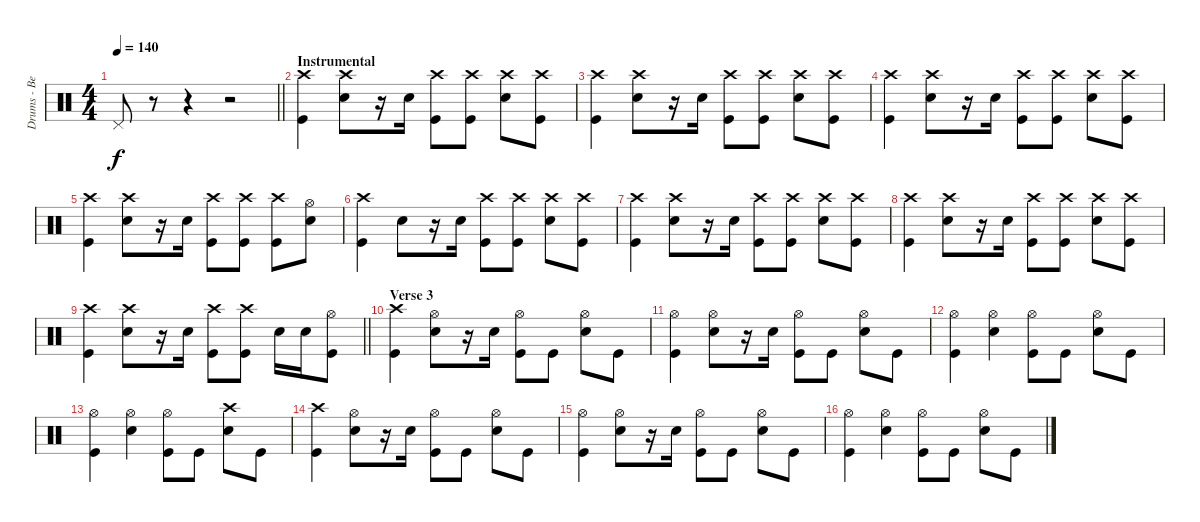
\track ("Drums - Ben Johnston" "Drums - Be") {instrument percussion}
\staff {score}
\articulation defaults
\ts (4 4)
\tempo 140
\clef neutral
\barLineRight lightlight
\ks c "Pedal Hi-Hat (hit)".8{dy f}
r.8 r.4 r.2 |
\section ("" "Instrumental")
("Crash high (hit)" "Kick (hit)").4 ("Crash high (hit)" "Snare (hit) 2").8 r.16 "Snare (hit) 2".16 ("Crash high (hit)" "Kick (hit)").8 ("Crash high (hit)" "Kick (hit)").8 ("Crash high (hit)" "Snare (hit) 2").8 ("Crash high (hit)" "Kick (hit)").8 |
("Crash high (hit)" "Kick (hit)").4 ("Crash high (hit)" "Snare (hit) 2").8 r.16 "Snare (hit) 2".16 ("Crash high (hit)" "Kick (hit)").8 ("Crash high (hit)" "Kick (hit)").8 ("Crash high (hit)" "Snare (hit) 2").8 ("Crash high (hit)" "Kick (hit)").8 |
("Crash high (hit)" "Kick (hit)").4 ("Crash high (hit)" "Snare (hit) 2").8 r.16 "Snare (hit) 2".16 ("Crash high (hit)" "Kick (hit)").8 ("Crash high (hit)" "Kick (hit)").8 ("Crash high (hit)" "Snare (hit) 2").8 ("Crash high (hit)" "Kick (hit)").8 |
("Crash high (hit)" "Kick (hit)").4 ("Crash high (hit)" "Snare (hit) 2").8 r.16 "Snare (hit) 2".16 ("Crash high (hit)" "Kick (hit)").8 ("Crash high (hit)" "Kick (hit)").8 ("Crash high (hit)" "Kick (hit)").8 ("Hi-Hat (open)" "Snare (hit) 2").8 |
("Crash high (hit)" "Kick (hit)").4 "Snare (hit) 2".8 r.16 "Snare (hit) 2".16 ("Crash high (hit)" "Kick (hit)").8 ("Crash high (hit)" "Kick (hit)").8 ("Crash high (hit)" "Snare (hit) 2").8 ("Crash high (hit)" "Kick (hit)").8 |
("Crash high (hit)" "Kick (hit)").4 ("Crash high (hit)" "Snare (hit) 2").8 r.16 "Snare (hit) 2".16 ("Crash high (hit)" "Kick (hit)").8 ("Crash high (hit)" "Kick (hit)").8 ("Crash high (hit)" "Snare (hit) 2").8 ("Crash high (hit)" "Kick (hit)").8 |
("Crash high (hit)" "Kick (hit)").4 ("Crash high (hit)" "Snare (hit) 2").8 r.16 "Snare (hit) 2".16 ("Crash high (hit)" "Kick (hit)").8 ("Crash high (hit)" "Kick (hit)").8 ("Crash high (hit)" "Snare (hit) 2").8 ("Crash high (hit)" "Kick (hit)").8 |
\barLineRight lightlight
("Crash high (hit)" "Kick (hit)").4 ("Crash high (hit)" "Snare (hit) 2").8 r.16 "Snare (hit) 2".16 ("Crash high (hit)" "Kick (hit)").8 ("Crash high (hit)" "Kick (hit)").8 "Snare (hit) 2".16 "Snare (hit) 2".16 ("Hi-Hat (open)" "Kick (hit)").8 |
\section ("" "Verse 3")
("Crash high (hit)" "Kick (hit)").4 ("Hi-Hat (open)" "Snare (hit) 2").8 r.16 "Snare (hit) 2".16 ("Hi-Hat (open)" "Kick (hit)").8 "Kick (hit)".8 ("Hi-Hat (open)" "Snare (hit) 2").8 "Kick (hit)".8 |
("Hi-Hat (open)" "Kick (hit)").4 ("Hi-Hat (open)" "Snare (hit) 2").8 r.16 "Snare (hit) 2".16 ("Hi-Hat (open)" "Kick (hit)").8 "Kick (hit)".8 ("Hi-Hat (open)" "Snare (hit) 2").8 "Kick (hit)".8 |
("Hi-Hat (open)" "Kick (hit)").4 ("Hi-Hat (open)" "Snare (hit) 2").4 ("Hi-Hat (open)" "Kick (hit)").8 "Kick (hit)".8 ("Hi-Hat (open)" "Snare (hit) 2").8 "Kick (hit)".8 |
("Hi-Hat (open)" "Kick (hit)").4 ("Hi-Hat (open)" "Snare (hit) 2").4 ("Hi-Hat (open)" "Kick (hit)").8 "Kick (hit)".8 ("Crash high (hit)" "Snare (hit) 2").8 "Kick (hit)".8 |
("Crash high (hit)" "Kick (hit)").4 ("Hi-Hat (open)" "Snare (hit) 2").8 r.16 "Snare (hit) 2".16 ("Hi-Hat (open)" "Kick (hit)").8 "Kick (hit)".8 ("Hi-Hat (open)" "Snare (hit) 2").8 "Kick (hit)".8 |
("Hi-Hat (open)" "Kick (hit)").4 ("Hi-Hat (open)" "Snare (hit) 2").8 r.16 "Snare (hit) 2".16 ("Hi-Hat (open)" "Kick (hit)").8 "Kick (hit)".8 ("Hi-Hat (open)" "Snare (hit) 2").8 "Kick (hit)".8 |
("Hi-Hat (open)" "Kick (hit)").4 ("Hi-Hat (open)" "Snare (hit) 2").4 ("Hi-Hat (open)" "Kick (hit)").8 "Kick (hit)".8 ("Hi-Hat (open)" "Snare (hit) 2").8 "Kick (hit)".8
